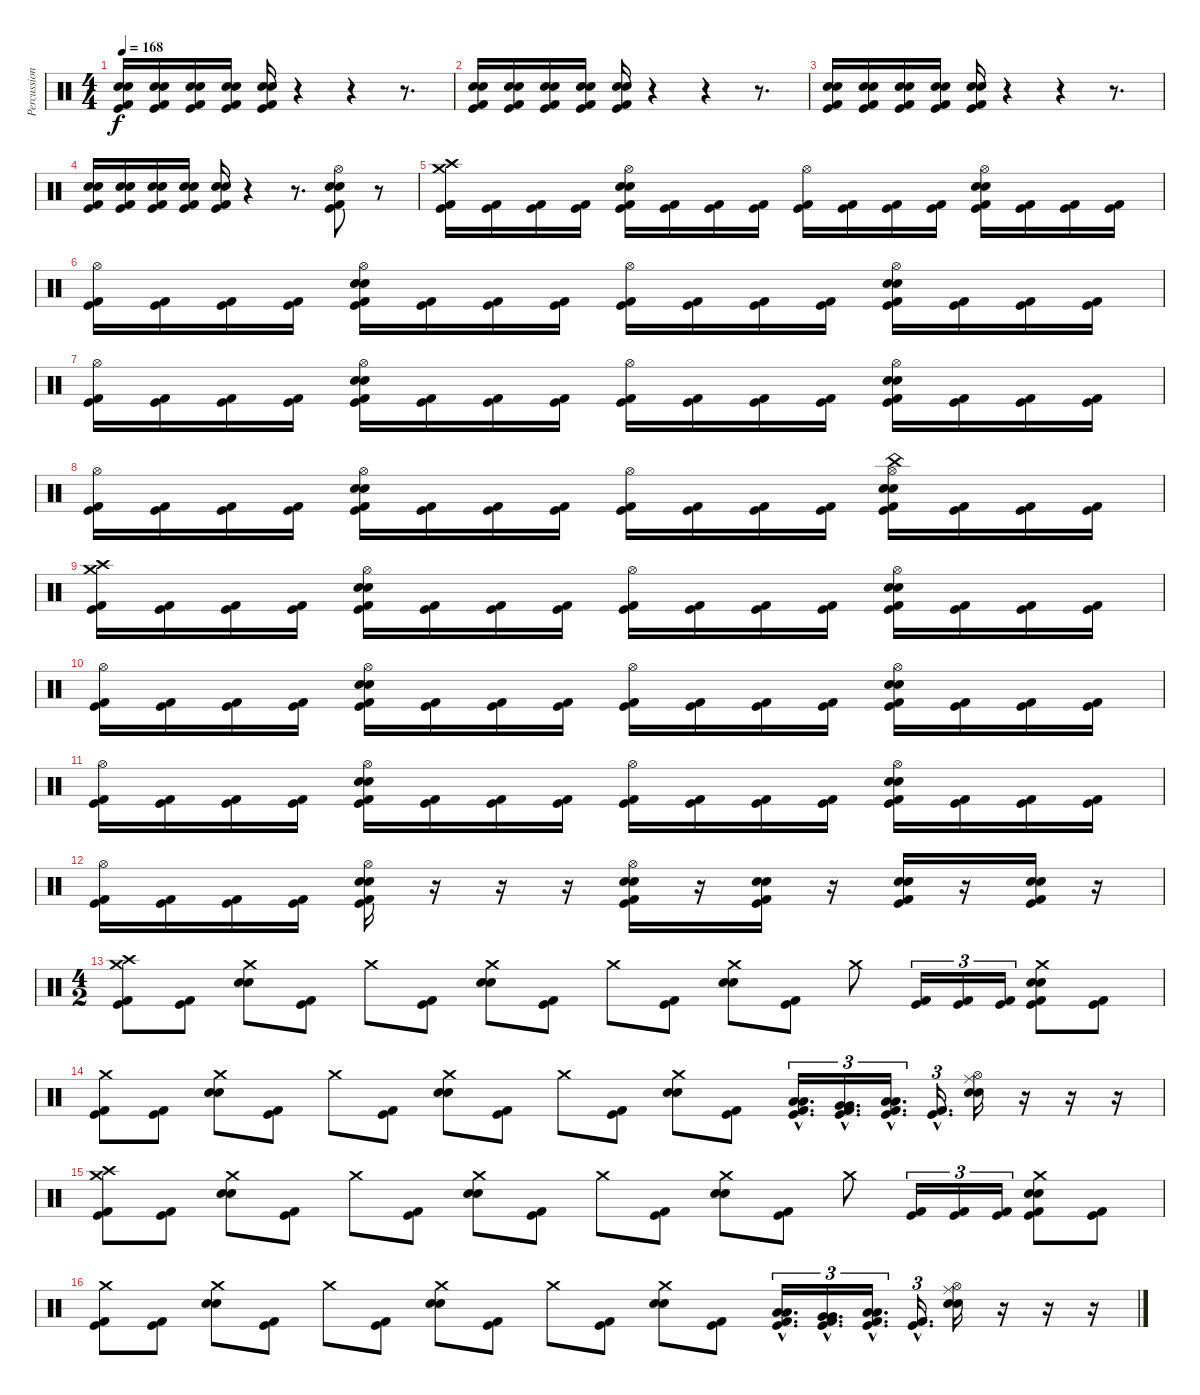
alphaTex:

\track ("Percussion" "Percussion") {instrument percussion}
\staff {score}
\articulation defaults
\ts (4 4)
\tempo 168
\clef neutral
\ks c
("Electric Snare (hit)" "Snare (hit) 2" "Kick (hit) 2" "Kick (hit)").16{dy f} ("Electric Snare (hit)" "Snare (hit) 2" "Kick (hit) 2" "Kick (hit)").16 ("Electric Snare (hit)" "Snare (hit) 2" "Kick (hit) 2" "Kick (hit)").16 ("Electric Snare (hit)" "Snare (hit) 2" "Kick (hit) 2" "Kick (hit)").16 ("Electric Snare (hit)" "Snare (hit) 2" "Kick (hit) 2" "Kick (hit)").16 r.4 r.4 r.8{d} |
("Electric Snare (hit)" "Snare (hit) 2" "Kick (hit) 2" "Kick (hit)").16 ("Electric Snare (hit)" "Snare (hit) 2" "Kick (hit) 2" "Kick (hit)").16 ("Electric Snare (hit)" "Snare (hit) 2" "Kick (hit) 2" "Kick (hit)").16 ("Electric Snare (hit)" "Snare (hit) 2" "Kick (hit) 2" "Kick (hit)").16 ("Electric Snare (hit)" "Snare (hit) 2" "Kick (hit) 2" "Kick (hit)").16 r.4 r.4 r.8{d} |
("Electric Snare (hit)" "Snare (hit) 2" "Kick (hit) 2" "Kick (hit)").16 ("Electric Snare (hit)" "Snare (hit) 2" "Kick (hit) 2" "Kick (hit)").16 ("Electric Snare (hit)" "Snare (hit) 2" "Kick (hit) 2" "Kick (hit)").16 ("Electric Snare (hit)" "Snare (hit) 2" "Kick (hit) 2" "Kick (hit)").16 ("Electric Snare (hit)" "Snare (hit) 2" "Kick (hit) 2" "Kick (hit)").16 r.4 r.4 r.8{d} |
("Electric Snare (hit)" "Snare (hit) 2" "Kick (hit) 2" "Kick (hit)").16 ("Electric Snare (hit)" "Snare (hit) 2" "Kick (hit) 2" "Kick (hit)").16 ("Electric Snare (hit)" "Snare (hit) 2" "Kick (hit) 2" "Kick (hit)").16 ("Electric Snare (hit)" "Snare (hit) 2" "Kick (hit) 2" "Kick (hit)").16 ("Electric Snare (hit)" "Snare (hit) 2" "Kick (hit) 2" "Kick (hit)").16 r.4 r.8{d} ("Hi-Hat (open)" "Electric Snare (hit)" "Snare (hit) 2" "Kick (hit) 2" "Kick (hit)").8 r.8 |
("Crash high (hit)" "Crash medium (hit)" "Kick (hit) 2" "Kick (hit)").16 ("Kick (hit) 2" "Kick (hit)").16 ("Kick (hit) 2" "Kick (hit)").16 ("Kick (hit) 2" "Kick (hit)").16 ("Hi-Hat (open)" "Electric Snare (hit)" "Snare (hit) 2" "Kick (hit) 2" "Kick (hit)").16 ("Kick (hit) 2" "Kick (hit)").16 ("Kick (hit) 2" "Kick (hit)").16 ("Kick (hit) 2" "Kick (hit)").16 ("Hi-Hat (open)" "Kick (hit) 2" "Kick (hit)").16 ("Kick (hit) 2" "Kick (hit)").16 ("Kick (hit) 2" "Kick (hit)").16 ("Kick (hit) 2" "Kick (hit)").16 ("Hi-Hat (open)" "Electric Snare (hit)" "Snare (hit) 2" "Kick (hit) 2" "Kick (hit)").16 ("Kick (hit) 2" "Kick (hit)").16 ("Kick (hit) 2" "Kick (hit)").16 ("Kick (hit) 2" "Kick (hit)").16 |
("Hi-Hat (open)" "Kick (hit) 2" "Kick (hit)").16 ("Kick (hit) 2" "Kick (hit)").16 ("Kick (hit) 2" "Kick (hit)").16 ("Kick (hit) 2" "Kick (hit)").16 ("Hi-Hat (open)" "Electric Snare (hit)" "Snare (hit) 2" "Kick (hit) 2" "Kick (hit)").16 ("Kick (hit) 2" "Kick (hit)").16 ("Kick (hit) 2" "Kick (hit)").16 ("Kick (hit) 2" "Kick (hit)").16 ("Hi-Hat (open)" "Kick (hit) 2" "Kick (hit)").16 ("Kick (hit) 2" "Kick (hit)").16 ("Kick (hit) 2" "Kick (hit)").16 ("Kick (hit) 2" "Kick (hit)").16 ("Hi-Hat (open)" "Electric Snare (hit)" "Snare (hit) 2" "Kick (hit) 2" "Kick (hit)").16 ("Kick (hit) 2" "Kick (hit)").16 ("Kick (hit) 2" "Kick (hit)").16 ("Kick (hit) 2" "Kick (hit)").16 |
("Hi-Hat (open)" "Kick (hit) 2" "Kick (hit)").16 ("Kick (hit) 2" "Kick (hit)").16 ("Kick (hit) 2" "Kick (hit)").16 ("Kick (hit) 2" "Kick (hit)").16 ("Hi-Hat (open)" "Electric Snare (hit)" "Snare (hit) 2" "Kick (hit) 2" "Kick (hit)").16 ("Kick (hit) 2" "Kick (hit)").16 ("Kick (hit) 2" "Kick (hit)").16 ("Kick (hit) 2" "Kick (hit)").16 ("Hi-Hat (open)" "Kick (hit) 2" "Kick (hit)").16 ("Kick (hit) 2" "Kick (hit)").16 ("Kick (hit) 2" "Kick (hit)").16 ("Kick (hit) 2" "Kick (hit)").16 ("Hi-Hat (open)" "Electric Snare (hit)" "Snare (hit) 2" "Kick (hit) 2" "Kick (hit)").16 ("Kick (hit) 2" "Kick (hit)").16 ("Kick (hit) 2" "Kick (hit)").16 ("Kick (hit) 2" "Kick (hit)").16 |
("Hi-Hat (open)" "Kick (hit) 2" "Kick (hit)").16 ("Kick (hit) 2" "Kick (hit)").16 ("Kick (hit) 2" "Kick (hit)").16 ("Kick (hit) 2" "Kick (hit)").16 ("Hi-Hat (open)" "Electric Snare (hit)" "Snare (hit) 2" "Kick (hit) 2" "Kick (hit)").16 ("Kick (hit) 2" "Kick (hit)").16 ("Kick (hit) 2" "Kick (hit)").16 ("Kick (hit) 2" "Kick (hit)").16 ("Hi-Hat (open)" "Kick (hit) 2" "Kick (hit)").16 ("Kick (hit) 2" "Kick (hit)").16 ("Kick (hit) 2" "Kick (hit)").16 ("Kick (hit) 2" "Kick (hit)").16 ("Hi-Hat (open)" "China (hit)" "Electric Snare (hit)" "Snare (hit) 2" "Kick (hit) 2" "Kick (hit)").16 ("Kick (hit) 2" "Kick (hit)").16 ("Kick (hit) 2" "Kick (hit)").16 ("Kick (hit) 2" "Kick (hit)").16 |
("Crash high (hit)" "Crash medium (hit)" "Kick (hit) 2" "Kick (hit)").16 ("Kick (hit) 2" "Kick (hit)").16 ("Kick (hit) 2" "Kick (hit)").16 ("Kick (hit) 2" "Kick (hit)").16 ("Hi-Hat (open)" "Electric Snare (hit)" "Snare (hit) 2" "Kick (hit) 2" "Kick (hit)").16 ("Kick (hit) 2" "Kick (hit)").16 ("Kick (hit) 2" "Kick (hit)").16 ("Kick (hit) 2" "Kick (hit)").16 ("Hi-Hat (open)" "Kick (hit) 2" "Kick (hit)").16 ("Kick (hit) 2" "Kick (hit)").16 ("Kick (hit) 2" "Kick (hit)").16 ("Kick (hit) 2" "Kick (hit)").16 ("Hi-Hat (open)" "Electric Snare (hit)" "Snare (hit) 2" "Kick (hit) 2" "Kick (hit)").16 ("Kick (hit) 2" "Kick (hit)").16 ("Kick (hit) 2" "Kick (hit)").16 ("Kick (hit) 2" "Kick (hit)").16 |
("Hi-Hat (open)" "Kick (hit) 2" "Kick (hit)").16 ("Kick (hit) 2" "Kick (hit)").16 ("Kick (hit) 2" "Kick (hit)").16 ("Kick (hit) 2" "Kick (hit)").16 ("Hi-Hat (open)" "Electric Snare (hit)" "Snare (hit) 2" "Kick (hit) 2" "Kick (hit)").16 ("Kick (hit) 2" "Kick (hit)").16 ("Kick (hit) 2" "Kick (hit)").16 ("Kick (hit) 2" "Kick (hit)").16 ("Hi-Hat (open)" "Kick (hit) 2" "Kick (hit)").16 ("Kick (hit) 2" "Kick (hit)").16 ("Kick (hit) 2" "Kick (hit)").16 ("Kick (hit) 2" "Kick (hit)").16 ("Hi-Hat (open)" "Electric Snare (hit)" "Snare (hit) 2" "Kick (hit) 2" "Kick (hit)").16 ("Kick (hit) 2" "Kick (hit)").16 ("Kick (hit) 2" "Kick (hit)").16 ("Kick (hit) 2" "Kick (hit)").16 |
("Hi-Hat (open)" "Kick (hit) 2" "Kick (hit)").16 ("Kick (hit) 2" "Kick (hit)").16 ("Kick (hit) 2" "Kick (hit)").16 ("Kick (hit) 2" "Kick (hit)").16 ("Hi-Hat (open)" "Electric Snare (hit)" "Snare (hit) 2" "Kick (hit) 2" "Kick (hit)").16 ("Kick (hit) 2" "Kick (hit)").16 ("Kick (hit) 2" "Kick (hit)").16 ("Kick (hit) 2" "Kick (hit)").16 ("Hi-Hat (open)" "Kick (hit) 2" "Kick (hit)").16 ("Kick (hit) 2" "Kick (hit)").16 ("Kick (hit) 2" "Kick (hit)").16 ("Kick (hit) 2" "Kick (hit)").16 ("Hi-Hat (open)" "Electric Snare (hit)" "Snare (hit) 2" "Kick (hit) 2" "Kick (hit)").16 ("Kick (hit) 2" "Kick (hit)").16 ("Kick (hit) 2" "Kick (hit)").16 ("Kick (hit) 2" "Kick (hit)").16 |
("Hi-Hat (open)" "Kick (hit) 2" "Kick (hit)").16 ("Kick (hit) 2" "Kick (hit)").16 ("Kick (hit) 2" "Kick (hit)").16 ("Kick (hit) 2" "Kick (hit)").16 ("Hi-Hat (open)" "Electric Snare (hit)" "Snare (hit) 2" "Kick (hit) 2" "Kick (hit)").16 r.16 r.16 r.16 ("Hi-Hat (open)" "Electric Snare (hit)" "Snare (hit) 2" "Kick (hit) 2" "Kick (hit)").16 r.16 ("Electric Snare (hit)" "Snare (hit) 2" "Kick (hit) 2" "Kick (hit)").16 r.16 ("Electric Snare (hit)" "Snare (hit) 2" "Kick (hit) 2" "Kick (hit)").16 r.16 ("Electric Snare (hit)" "Snare (hit) 2" "Kick (hit) 2" "Kick (hit)").16 r.16 |
\ts (4 2)
("Crash medium (hit)" "Crash high (hit)" "Kick (hit) 2" "Kick (hit)").8 ("Kick (hit) 2" "Kick (hit)").8 ("Crash medium (hit)" "Electric Snare (hit)" "Snare (hit) 2").8 ("Kick (hit) 2" "Kick (hit)").8 "Crash medium (hit)".8 ("Kick (hit) 2" "Kick (hit)").8 ("Crash medium (hit)" "Electric Snare (hit)" "Snare (hit) 2").8 ("Kick (hit) 2" "Kick (hit)").8 "Crash medium (hit)".8 ("Kick (hit) 2" "Kick (hit)").8 ("Crash medium (hit)" "Electric Snare (hit)" "Snare (hit) 2").8 ("Kick (hit) 2" "Kick (hit)").8 "Crash medium (hit)".8 ("Kick (hit) 2" "Kick (hit)").16{tu (3 2)} ("Kick (hit) 2" "Kick (hit)").16{tu (3 2)} ("Kick (hit) 2" "Kick (hit)").16{tu (3 2)} ("Crash medium (hit)" "Electric Snare (hit)" "Snare (hit) 2" "Kick (hit) 2" "Kick (hit)").8 ("Kick (hit) 2" "Kick (hit)").8 |
("Crash medium (hit)" "Kick (hit) 2" "Kick (hit)").8 ("Kick (hit) 2" "Kick (hit)").8 ("Crash medium (hit)" "Electric Snare (hit)" "Snare (hit) 2").8 ("Kick (hit) 2" "Kick (hit)").8 "Crash medium (hit)".8 ("Kick (hit) 2" "Kick (hit)").8 ("Crash medium (hit)" "Electric Snare (hit)" "Snare (hit) 2").8 ("Kick (hit) 2" "Kick (hit)").8 "Crash medium (hit)".8 ("Kick (hit) 2" "Kick (hit)").8 ("Crash medium (hit)" "Electric Snare (hit)" "Snare (hit) 2").8 ("Kick (hit) 2" "Kick (hit)").8 ("Low Tom (hit)"{hac} "Low Tom (hit)"{hac} "Kick (hit) 2"{hac} "Kick (hit)"{hac}).16{d tu (3 2)} ("Very Low Tom (hit)"{hac} "Very Low Tom (hit)"{hac} "Kick (hit) 2"{hac} "Kick (hit)"{hac}).16{d tu (3 2)} ("Low Floor Tom (hit)"{hac} "Low Floor Tom (hit)"{hac} "Kick (hit) 2"{hac} "Kick (hit)"{hac}).16{d tu (3 2)} ("Kick (hit) 2"{hac} "Kick (hit)"{hac}).16{d tu (3 2)} ("Hi-Hat (open)" "Ride (middle)" "Electric Snare (hit)" "Snare (hit) 2").16 r.16 r.16 r.16 |
("Crash high (hit)" "Crash medium (hit)" "Kick (hit) 2" "Kick (hit)").8 ("Kick (hit) 2" "Kick (hit)").8 ("Crash medium (hit)" "Electric Snare (hit)" "Snare (hit) 2").8 ("Kick (hit) 2" "Kick (hit)").8 "Crash medium (hit)".8 ("Kick (hit) 2" "Kick (hit)").8 ("Crash medium (hit)" "Electric Snare (hit)" "Snare (hit) 2").8 ("Kick (hit) 2" "Kick (hit)").8 "Crash medium (hit)".8 ("Kick (hit) 2" "Kick (hit)").8 ("Crash medium (hit)" "Electric Snare (hit)" "Snare (hit) 2").8 ("Kick (hit) 2" "Kick (hit)").8 "Crash medium (hit)".8 ("Kick (hit) 2" "Kick (hit)").16{tu (3 2)} ("Kick (hit) 2" "Kick (hit)").16{tu (3 2)} ("Kick (hit) 2" "Kick (hit)").16{tu (3 2)} ("Crash medium (hit)" "Electric Snare (hit)" "Snare (hit) 2" "Kick (hit) 2" "Kick (hit)").8 ("Kick (hit) 2" "Kick (hit)").8 |
("Crash medium (hit)" "Kick (hit) 2" "Kick (hit)").8 ("Kick (hit) 2" "Kick (hit)").8 ("Crash medium (hit)" "Electric Snare (hit)" "Snare (hit) 2").8 ("Kick (hit) 2" "Kick (hit)").8 "Crash medium (hit)".8 ("Kick (hit) 2" "Kick (hit)").8 ("Crash medium (hit)" "Electric Snare (hit)" "Snare (hit) 2").8 ("Kick (hit) 2" "Kick (hit)").8 "Crash medium (hit)".8 ("Kick (hit) 2" "Kick (hit)").8 ("Crash medium (hit)" "Electric Snare (hit)" "Snare (hit) 2").8 ("Kick (hit) 2" "Kick (hit)").8 ("Low Tom (hit)"{hac} "Low Tom (hit)"{hac} "Kick (hit) 2"{hac} "Kick (hit)"{hac}).16{d tu (3 2)} ("Very Low Tom (hit)"{hac} "Very Low Tom (hit)"{hac} "Kick (hit) 2"{hac} "Kick (hit)"{hac}).16{d tu (3 2)} ("Low Floor Tom (hit)"{hac} "Low Floor Tom (hit)"{hac} "Kick (hit) 2"{hac} "Kick (hit)"{hac}).16{d tu (3 2)} ("Kick (hit) 2"{hac} "Kick (hit)"{hac}).16{d tu (3 2)} ("Hi-Hat (open)" "Ride (middle)" "Electric Snare (hit)" "Snare (hit) 2").16 r.16 r.16 r.16
